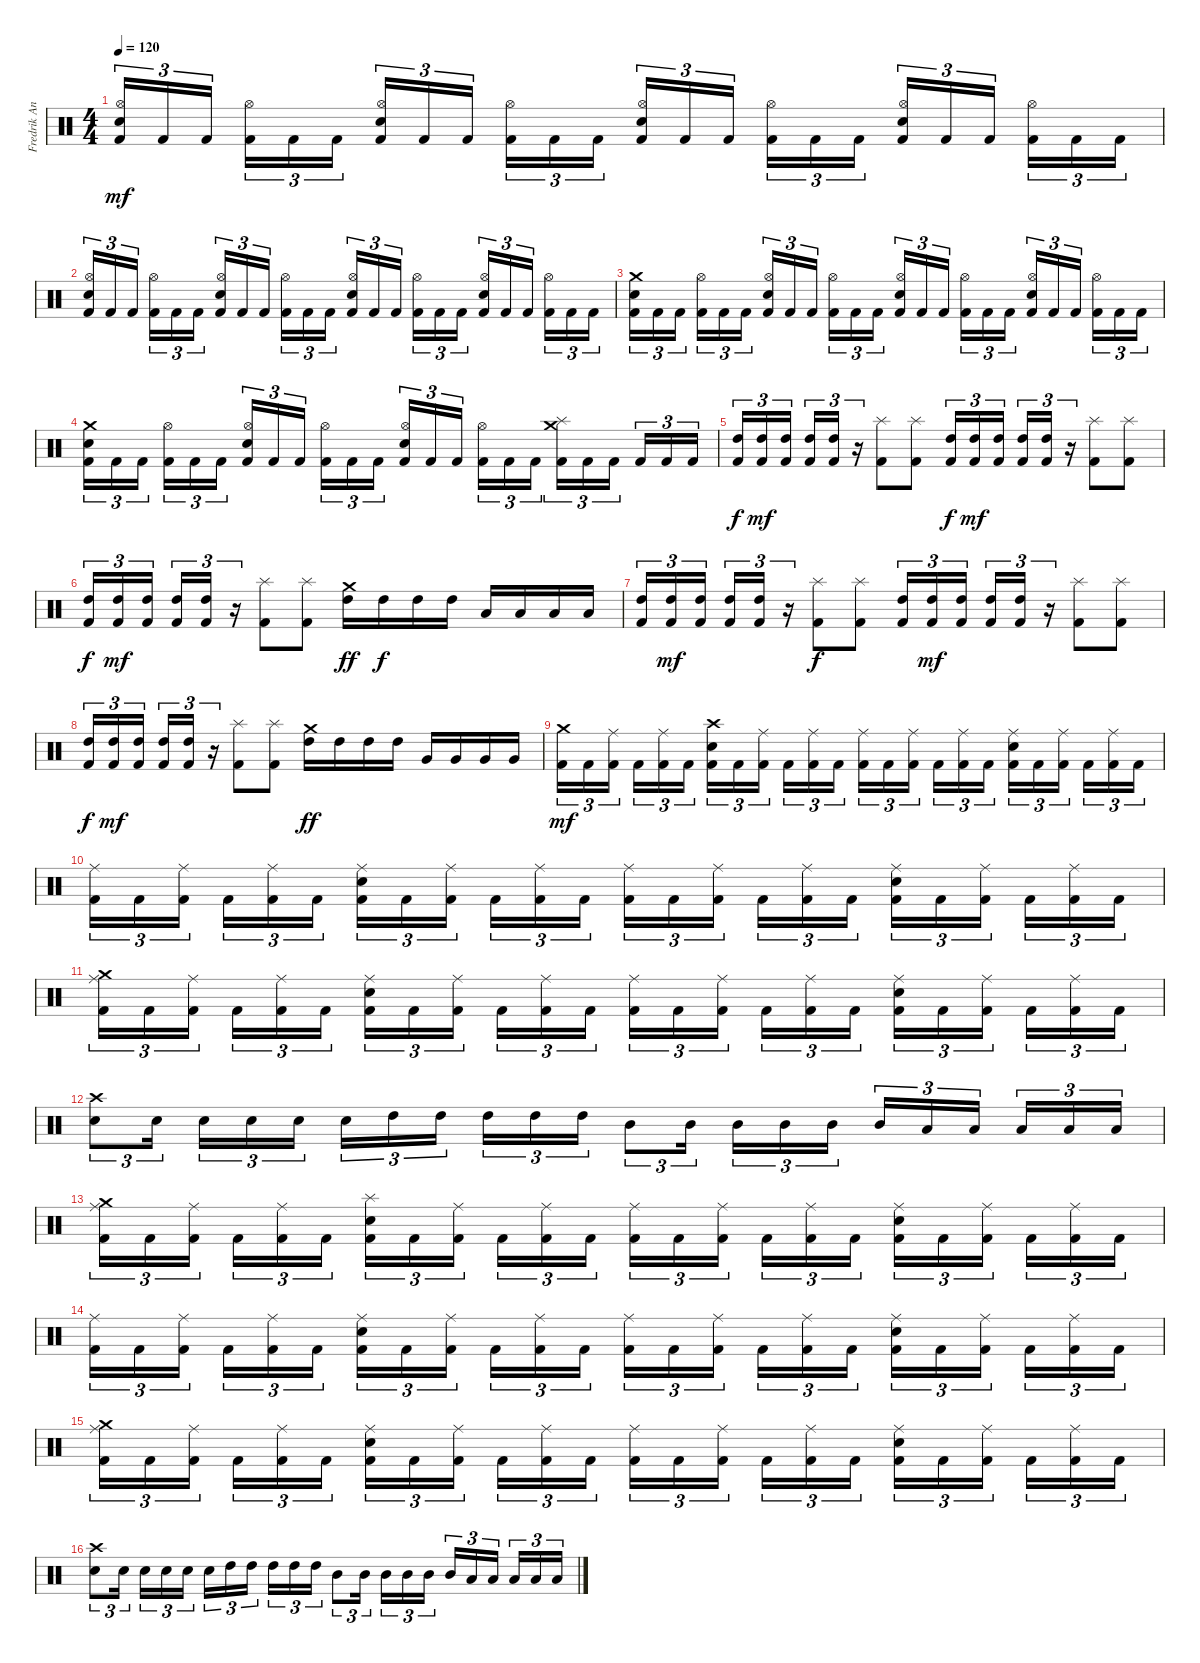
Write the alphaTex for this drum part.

\track ("Fredrik Andersson" "Fredrik An") {instrument percussion}
\staff {score}
\articulation defaults
\ts (4 4)
\tempo 120
\clef neutral
\ks c
("Snare (hit) 2" "Hi-Hat (open)" "Kick (hit) 2").16{tu (3 2) dy mf} "Kick (hit) 2".16{tu (3 2)} "Kick (hit) 2".16{tu (3 2) beam splitsecondary} ("Hi-Hat (open)" "Kick (hit) 2").16{tu (3 2)} "Kick (hit) 2".16{tu (3 2)} "Kick (hit) 2".16{tu (3 2)} ("Snare (hit) 2" "Hi-Hat (open)" "Kick (hit) 2").16{tu (3 2)} "Kick (hit) 2".16{tu (3 2)} "Kick (hit) 2".16{tu (3 2) beam splitsecondary} ("Hi-Hat (open)" "Kick (hit) 2").16{tu (3 2)} "Kick (hit) 2".16{tu (3 2)} "Kick (hit) 2".16{tu (3 2)} ("Snare (hit) 2" "Hi-Hat (open)" "Kick (hit) 2").16{tu (3 2)} "Kick (hit) 2".16{tu (3 2)} "Kick (hit) 2".16{tu (3 2) beam splitsecondary} ("Hi-Hat (open)" "Kick (hit) 2").16{tu (3 2)} "Kick (hit) 2".16{tu (3 2)} "Kick (hit) 2".16{tu (3 2)} ("Snare (hit) 2" "Hi-Hat (open)" "Kick (hit) 2").16{tu (3 2)} "Kick (hit) 2".16{tu (3 2)} "Kick (hit) 2".16{tu (3 2) beam splitsecondary} ("Hi-Hat (open)" "Kick (hit) 2").16{tu (3 2)} "Kick (hit) 2".16{tu (3 2)} "Kick (hit) 2".16{tu (3 2)} |
("Snare (hit) 2" "Hi-Hat (open)" "Kick (hit) 2").16{tu (3 2)} "Kick (hit) 2".16{tu (3 2)} "Kick (hit) 2".16{tu (3 2) beam splitsecondary} ("Hi-Hat (open)" "Kick (hit) 2").16{tu (3 2)} "Kick (hit) 2".16{tu (3 2)} "Kick (hit) 2".16{tu (3 2)} ("Snare (hit) 2" "Hi-Hat (open)" "Kick (hit) 2").16{tu (3 2)} "Kick (hit) 2".16{tu (3 2)} "Kick (hit) 2".16{tu (3 2) beam splitsecondary} ("Hi-Hat (open)" "Kick (hit) 2").16{tu (3 2)} "Kick (hit) 2".16{tu (3 2)} "Kick (hit) 2".16{tu (3 2)} ("Snare (hit) 2" "Hi-Hat (open)" "Kick (hit) 2").16{tu (3 2)} "Kick (hit) 2".16{tu (3 2)} "Kick (hit) 2".16{tu (3 2) beam splitsecondary} ("Hi-Hat (open)" "Kick (hit) 2").16{tu (3 2)} "Kick (hit) 2".16{tu (3 2)} "Kick (hit) 2".16{tu (3 2)} ("Snare (hit) 2" "Hi-Hat (open)" "Kick (hit) 2").16{tu (3 2)} "Kick (hit) 2".16{tu (3 2)} "Kick (hit) 2".16{tu (3 2) beam splitsecondary} ("Hi-Hat (open)" "Kick (hit) 2").16{tu (3 2)} "Kick (hit) 2".16{tu (3 2)} "Kick (hit) 2".16{tu (3 2)} |
("Snare (hit) 2" "Crash medium (hit)" "Kick (hit) 2").16{tu (3 2)} "Kick (hit) 2".16{tu (3 2)} "Kick (hit) 2".16{tu (3 2) beam splitsecondary} ("Hi-Hat (open)" "Kick (hit) 2").16{tu (3 2)} "Kick (hit) 2".16{tu (3 2)} "Kick (hit) 2".16{tu (3 2)} ("Snare (hit) 2" "Hi-Hat (open)" "Kick (hit) 2").16{tu (3 2)} "Kick (hit) 2".16{tu (3 2)} "Kick (hit) 2".16{tu (3 2) beam splitsecondary} ("Hi-Hat (open)" "Kick (hit) 2").16{tu (3 2)} "Kick (hit) 2".16{tu (3 2)} "Kick (hit) 2".16{tu (3 2)} ("Snare (hit) 2" "Hi-Hat (open)" "Kick (hit) 2").16{tu (3 2)} "Kick (hit) 2".16{tu (3 2)} "Kick (hit) 2".16{tu (3 2) beam splitsecondary} ("Hi-Hat (open)" "Kick (hit) 2").16{tu (3 2)} "Kick (hit) 2".16{tu (3 2)} "Kick (hit) 2".16{tu (3 2)} ("Snare (hit) 2" "Hi-Hat (open)" "Kick (hit) 2").16{tu (3 2)} "Kick (hit) 2".16{tu (3 2)} "Kick (hit) 2".16{tu (3 2) beam splitsecondary} ("Hi-Hat (open)" "Kick (hit) 2").16{tu (3 2)} "Kick (hit) 2".16{tu (3 2)} "Kick (hit) 2".16{tu (3 2)} |
("Snare (hit) 2" "Crash medium (hit)" "Kick (hit) 2").16{tu (3 2)} "Kick (hit) 2".16{tu (3 2)} "Kick (hit) 2".16{tu (3 2) beam splitsecondary} ("Hi-Hat (open)" "Kick (hit) 2").16{tu (3 2)} "Kick (hit) 2".16{tu (3 2)} "Kick (hit) 2".16{tu (3 2)} ("Snare (hit) 2" "Hi-Hat (open)" "Kick (hit) 2").16{tu (3 2)} "Kick (hit) 2".16{tu (3 2)} "Kick (hit) 2".16{tu (3 2) beam splitsecondary} ("Hi-Hat (open)" "Kick (hit) 2").16{tu (3 2)} "Kick (hit) 2".16{tu (3 2)} "Kick (hit) 2".16{tu (3 2)} ("Snare (hit) 2" "Hi-Hat (open)" "Kick (hit) 2").16{tu (3 2)} "Kick (hit) 2".16{tu (3 2)} "Kick (hit) 2".16{tu (3 2) beam splitsecondary} ("Hi-Hat (open)" "Kick (hit) 2").16{tu (3 2)} "Kick (hit) 2".16{tu (3 2)} "Kick (hit) 2".16{tu (3 2)} ("Crash medium (hit)" "Splash (hit)" "Kick (hit) 2").16{tu (3 2)} "Kick (hit) 2".16{tu (3 2)} "Kick (hit) 2".16{tu (3 2) beam splitsecondary} "Kick (hit) 2".16{tu (3 2)} "Kick (hit) 2".16{tu (3 2)} "Kick (hit) 2".16{tu (3 2)} |
("High Tom (hit)" "Kick (hit) 2").16{tu (3 2) dy f} ("High Tom (hit)" "Kick (hit) 2").16{tu (3 2) dy mf} ("High Tom (hit)" "Kick (hit) 2").16{tu (3 2) beam splitsecondary} ("High Tom (hit)" "Kick (hit) 2").16{tu (3 2)} ("High Tom (hit)" "Kick (hit) 2").16{tu (3 2)} r.16{tu (3 2)} ("Splash (hit)" "Kick (hit) 2").8 ("Splash (hit)" "Kick (hit) 2").8 ("High Tom (hit)" "Kick (hit) 2").16{tu (3 2) dy f} ("High Tom (hit)" "Kick (hit) 2").16{tu (3 2) dy mf} ("High Tom (hit)" "Kick (hit) 2").16{tu (3 2) beam splitsecondary} ("High Tom (hit)" "Kick (hit) 2").16{tu (3 2)} ("High Tom (hit)" "Kick (hit) 2").16{tu (3 2)} r.16{tu (3 2)} ("Splash (hit)" "Kick (hit) 2").8 ("Splash (hit)" "Kick (hit) 2").8 |
("High Tom (hit)" "Kick (hit) 2").16{tu (3 2) dy f} ("High Tom (hit)" "Kick (hit) 2").16{tu (3 2) dy mf} ("High Tom (hit)" "Kick (hit) 2").16{tu (3 2) beam splitsecondary} ("High Tom (hit)" "Kick (hit) 2").16{tu (3 2)} ("High Tom (hit)" "Kick (hit) 2").16{tu (3 2)} r.16{tu (3 2)} ("Splash (hit)" "Kick (hit) 2").8 ("Splash (hit)" "Kick (hit) 2").8 ("Crash medium (hit)" "High Tom (hit)").16{dy ff} "High Tom (hit)".16{dy f} "High Tom (hit)".16 "High Tom (hit)".16 "Low Tom (hit)".16 "Low Tom (hit)".16 "Low Tom (hit)".16 "Low Tom (hit)".16 |
("High Tom (hit)" "Kick (hit) 2").16{tu (3 2)} ("High Tom (hit)" "Kick (hit) 2").16{tu (3 2) dy mf} ("High Tom (hit)" "Kick (hit) 2").16{tu (3 2) beam splitsecondary} ("High Tom (hit)" "Kick (hit) 2").16{tu (3 2)} ("High Tom (hit)" "Kick (hit) 2").16{tu (3 2)} r.16{tu (3 2)} ("Splash (hit)" "Kick (hit) 2").8{dy f} ("Splash (hit)" "Kick (hit) 2").8 ("High Tom (hit)" "Kick (hit) 2").16{tu (3 2)} ("High Tom (hit)" "Kick (hit) 2").16{tu (3 2) dy mf} ("High Tom (hit)" "Kick (hit) 2").16{tu (3 2) beam splitsecondary} ("High Tom (hit)" "Kick (hit) 2").16{tu (3 2)} ("High Tom (hit)" "Kick (hit) 2").16{tu (3 2)} r.16{tu (3 2)} ("Splash (hit)" "Kick (hit) 2").8 ("Splash (hit)" "Kick (hit) 2").8 |
("High Tom (hit)" "Kick (hit) 2").16{tu (3 2) dy f} ("High Tom (hit)" "Kick (hit) 2").16{tu (3 2) dy mf} ("High Tom (hit)" "Kick (hit) 2").16{tu (3 2) beam splitsecondary} ("High Tom (hit)" "Kick (hit) 2").16{tu (3 2)} ("High Tom (hit)" "Kick (hit) 2").16{tu (3 2)} r.16{tu (3 2)} ("Splash (hit)" "Kick (hit) 2").8 ("Splash (hit)" "Kick (hit) 2").8 ("Crash medium (hit)" "High Tom (hit)").16{dy ff} "High Tom (hit)".16 "High Tom (hit)".16 "High Tom (hit)".16 "Very Low Tom (hit)".16 "Very Low Tom (hit)".16 "Very Low Tom (hit)".16 "Very Low Tom (hit)".16 |
("Crash medium (hit)" "Kick (hit) 2").16{tu (3 2) dy mf} "Kick (hit) 2".16{tu (3 2)} ("Ride (middle)" "Kick (hit) 2").16{tu (3 2) beam splitsecondary} "Kick (hit) 2".16{tu (3 2)} ("Ride (middle)" "Kick (hit) 2").16{tu (3 2)} "Kick (hit) 2".16{tu (3 2)} ("Snare (hit) 2" "Crash high (hit)" "Kick (hit) 2").16{tu (3 2)} "Kick (hit) 2".16{tu (3 2)} ("Ride (middle)" "Kick (hit) 2").16{tu (3 2) beam splitsecondary} "Kick (hit) 2".16{tu (3 2)} ("Ride (middle)" "Kick (hit) 2").16{tu (3 2)} "Kick (hit) 2".16{tu (3 2)} ("Ride (middle)" "Kick (hit) 2").16{tu (3 2)} "Kick (hit) 2".16{tu (3 2)} ("Ride (middle)" "Kick (hit) 2").16{tu (3 2) beam splitsecondary} "Kick (hit) 2".16{tu (3 2)} ("Ride (middle)" "Kick (hit) 2").16{tu (3 2)} "Kick (hit) 2".16{tu (3 2)} ("Snare (hit) 2" "Ride (middle)" "Kick (hit) 2").16{tu (3 2)} "Kick (hit) 2".16{tu (3 2)} ("Ride (middle)" "Kick (hit) 2").16{tu (3 2) beam splitsecondary} "Kick (hit) 2".16{tu (3 2)} ("Ride (middle)" "Kick (hit) 2").16{tu (3 2)} "Kick (hit) 2".16{tu (3 2)} |
("Ride (middle)" "Kick (hit) 2").16{tu (3 2)} "Kick (hit) 2".16{tu (3 2)} ("Ride (middle)" "Kick (hit) 2").16{tu (3 2) beam splitsecondary} "Kick (hit) 2".16{tu (3 2)} ("Ride (middle)" "Kick (hit) 2").16{tu (3 2)} "Kick (hit) 2".16{tu (3 2)} ("Snare (hit) 2" "Ride (middle)" "Kick (hit) 2").16{tu (3 2)} "Kick (hit) 2".16{tu (3 2)} ("Ride (middle)" "Kick (hit) 2").16{tu (3 2) beam splitsecondary} "Kick (hit) 2".16{tu (3 2)} ("Ride (middle)" "Kick (hit) 2").16{tu (3 2)} "Kick (hit) 2".16{tu (3 2)} ("Ride (middle)" "Kick (hit) 2").16{tu (3 2)} "Kick (hit) 2".16{tu (3 2)} ("Ride (middle)" "Kick (hit) 2").16{tu (3 2) beam splitsecondary} "Kick (hit) 2".16{tu (3 2)} ("Ride (middle)" "Kick (hit) 2").16{tu (3 2)} "Kick (hit) 2".16{tu (3 2)} ("Snare (hit) 2" "Ride (middle)" "Kick (hit) 2").16{tu (3 2)} "Kick (hit) 2".16{tu (3 2)} ("Ride (middle)" "Kick (hit) 2").16{tu (3 2) beam splitsecondary} "Kick (hit) 2".16{tu (3 2)} ("Ride (middle)" "Kick (hit) 2").16{tu (3 2)} "Kick (hit) 2".16{tu (3 2)} |
("Crash medium (hit)" "Ride (middle)" "Kick (hit) 2").16{tu (3 2)} "Kick (hit) 2".16{tu (3 2)} ("Ride (middle)" "Kick (hit) 2").16{tu (3 2) beam splitsecondary} "Kick (hit) 2".16{tu (3 2)} ("Ride (middle)" "Kick (hit) 2").16{tu (3 2)} "Kick (hit) 2".16{tu (3 2)} ("Snare (hit) 2" "Ride (middle)" "Kick (hit) 2").16{tu (3 2)} "Kick (hit) 2".16{tu (3 2)} ("Ride (middle)" "Kick (hit) 2").16{tu (3 2) beam splitsecondary} "Kick (hit) 2".16{tu (3 2)} ("Ride (middle)" "Kick (hit) 2").16{tu (3 2)} "Kick (hit) 2".16{tu (3 2)} ("Ride (middle)" "Kick (hit) 2").16{tu (3 2)} "Kick (hit) 2".16{tu (3 2)} ("Ride (middle)" "Kick (hit) 2").16{tu (3 2) beam splitsecondary} "Kick (hit) 2".16{tu (3 2)} ("Ride (middle)" "Kick (hit) 2").16{tu (3 2)} "Kick (hit) 2".16{tu (3 2)} ("Snare (hit) 2" "Ride (middle)" "Kick (hit) 2").16{tu (3 2)} "Kick (hit) 2".16{tu (3 2)} ("Ride (middle)" "Kick (hit) 2").16{tu (3 2) beam splitsecondary} "Kick (hit) 2".16{tu (3 2)} ("Ride (middle)" "Kick (hit) 2").16{tu (3 2)} "Kick (hit) 2".16{tu (3 2)} |
("Crash high (hit)" "Snare (hit) 2").8{tu (3 2)} "Snare (hit) 2".16{tu (3 2) beam splitsecondary} "Snare (hit) 2".16{tu (3 2)} "Snare (hit) 2".16{tu (3 2)} "Snare (hit) 2".16{tu (3 2)} "Snare (hit) 2".16{tu (3 2)} "High Tom (hit)".16{tu (3 2)} "High Tom (hit)".16{tu (3 2) beam splitsecondary} "High Tom (hit)".16{tu (3 2)} "High Tom (hit)".16{tu (3 2)} "High Tom (hit)".16{tu (3 2)} "Mid Tom (hit)".8{tu (3 2)} "Mid Tom (hit)".16{tu (3 2) beam splitsecondary} "Mid Tom (hit)".16{tu (3 2)} "Mid Tom (hit)".16{tu (3 2)} "Mid Tom (hit)".16{tu (3 2)} "Mid Tom (hit)".16{tu (3 2)} "Low Tom (hit)".16{tu (3 2)} "Low Tom (hit)".16{tu (3 2) beam splitsecondary} "Low Tom (hit)".16{tu (3 2)} "Low Tom (hit)".16{tu (3 2)} "Low Tom (hit)".16{tu (3 2)} |
("Crash medium (hit)" "Ride (middle)" "Kick (hit) 2").16{tu (3 2)} "Kick (hit) 2".16{tu (3 2)} ("Ride (middle)" "Kick (hit) 2").16{tu (3 2) beam splitsecondary} "Kick (hit) 2".16{tu (3 2)} ("Ride (middle)" "Kick (hit) 2").16{tu (3 2)} "Kick (hit) 2".16{tu (3 2)} ("Snare (hit) 2" "Splash (hit)" "Kick (hit) 2").16{tu (3 2)} "Kick (hit) 2".16{tu (3 2)} ("Ride (middle)" "Kick (hit) 2").16{tu (3 2) beam splitsecondary} "Kick (hit) 2".16{tu (3 2)} ("Ride (middle)" "Kick (hit) 2").16{tu (3 2)} "Kick (hit) 2".16{tu (3 2)} ("Ride (middle)" "Kick (hit) 2").16{tu (3 2)} "Kick (hit) 2".16{tu (3 2)} ("Ride (middle)" "Kick (hit) 2").16{tu (3 2) beam splitsecondary} "Kick (hit) 2".16{tu (3 2)} ("Ride (middle)" "Kick (hit) 2").16{tu (3 2)} "Kick (hit) 2".16{tu (3 2)} ("Snare (hit) 2" "Ride (middle)" "Kick (hit) 2").16{tu (3 2)} "Kick (hit) 2".16{tu (3 2)} ("Ride (middle)" "Kick (hit) 2").16{tu (3 2) beam splitsecondary} "Kick (hit) 2".16{tu (3 2)} ("Ride (middle)" "Kick (hit) 2").16{tu (3 2)} "Kick (hit) 2".16{tu (3 2)} |
("Ride (middle)" "Kick (hit) 2").16{tu (3 2)} "Kick (hit) 2".16{tu (3 2)} ("Ride (middle)" "Kick (hit) 2").16{tu (3 2) beam splitsecondary} "Kick (hit) 2".16{tu (3 2)} ("Ride (middle)" "Kick (hit) 2").16{tu (3 2)} "Kick (hit) 2".16{tu (3 2)} ("Snare (hit) 2" "Ride (middle)" "Kick (hit) 2").16{tu (3 2)} "Kick (hit) 2".16{tu (3 2)} ("Ride (middle)" "Kick (hit) 2").16{tu (3 2) beam splitsecondary} "Kick (hit) 2".16{tu (3 2)} ("Ride (middle)" "Kick (hit) 2").16{tu (3 2)} "Kick (hit) 2".16{tu (3 2)} ("Ride (middle)" "Kick (hit) 2").16{tu (3 2)} "Kick (hit) 2".16{tu (3 2)} ("Ride (middle)" "Kick (hit) 2").16{tu (3 2) beam splitsecondary} "Kick (hit) 2".16{tu (3 2)} ("Ride (middle)" "Kick (hit) 2").16{tu (3 2)} "Kick (hit) 2".16{tu (3 2)} ("Snare (hit) 2" "Ride (middle)" "Kick (hit) 2").16{tu (3 2)} "Kick (hit) 2".16{tu (3 2)} ("Ride (middle)" "Kick (hit) 2").16{tu (3 2) beam splitsecondary} "Kick (hit) 2".16{tu (3 2)} ("Ride (middle)" "Kick (hit) 2").16{tu (3 2)} "Kick (hit) 2".16{tu (3 2)} |
("Crash medium (hit)" "Ride (middle)" "Kick (hit) 2").16{tu (3 2)} "Kick (hit) 2".16{tu (3 2)} ("Ride (middle)" "Kick (hit) 2").16{tu (3 2) beam splitsecondary} "Kick (hit) 2".16{tu (3 2)} ("Ride (middle)" "Kick (hit) 2").16{tu (3 2)} "Kick (hit) 2".16{tu (3 2)} ("Snare (hit) 2" "Ride (middle)" "Kick (hit) 2").16{tu (3 2)} "Kick (hit) 2".16{tu (3 2)} ("Ride (middle)" "Kick (hit) 2").16{tu (3 2) beam splitsecondary} "Kick (hit) 2".16{tu (3 2)} ("Ride (middle)" "Kick (hit) 2").16{tu (3 2)} "Kick (hit) 2".16{tu (3 2)} ("Ride (middle)" "Kick (hit) 2").16{tu (3 2)} "Kick (hit) 2".16{tu (3 2)} ("Ride (middle)" "Kick (hit) 2").16{tu (3 2) beam splitsecondary} "Kick (hit) 2".16{tu (3 2)} ("Ride (middle)" "Kick (hit) 2").16{tu (3 2)} "Kick (hit) 2".16{tu (3 2)} ("Snare (hit) 2" "Ride (middle)" "Kick (hit) 2").16{tu (3 2)} "Kick (hit) 2".16{tu (3 2)} ("Ride (middle)" "Kick (hit) 2").16{tu (3 2) beam splitsecondary} "Kick (hit) 2".16{tu (3 2)} ("Ride (middle)" "Kick (hit) 2").16{tu (3 2)} "Kick (hit) 2".16{tu (3 2)} |
("Crash high (hit)" "Snare (hit) 2").8{tu (3 2)} "Snare (hit) 2".16{tu (3 2) beam splitsecondary} "Snare (hit) 2".16{tu (3 2)} "Snare (hit) 2".16{tu (3 2)} "Snare (hit) 2".16{tu (3 2)} "Snare (hit) 2".16{tu (3 2)} "High Tom (hit)".16{tu (3 2)} "High Tom (hit)".16{tu (3 2) beam splitsecondary} "High Tom (hit)".16{tu (3 2)} "High Tom (hit)".16{tu (3 2)} "High Tom (hit)".16{tu (3 2)} "Mid Tom (hit)".8{tu (3 2)} "Mid Tom (hit)".16{tu (3 2) beam splitsecondary} "Mid Tom (hit)".16{tu (3 2)} "Mid Tom (hit)".16{tu (3 2)} "Mid Tom (hit)".16{tu (3 2)} "Mid Tom (hit)".16{tu (3 2)} "Low Tom (hit)".16{tu (3 2)} "Low Tom (hit)".16{tu (3 2) beam splitsecondary} "Low Tom (hit)".16{tu (3 2)} "Low Tom (hit)".16{tu (3 2)} "Low Tom (hit)".16{tu (3 2)}
